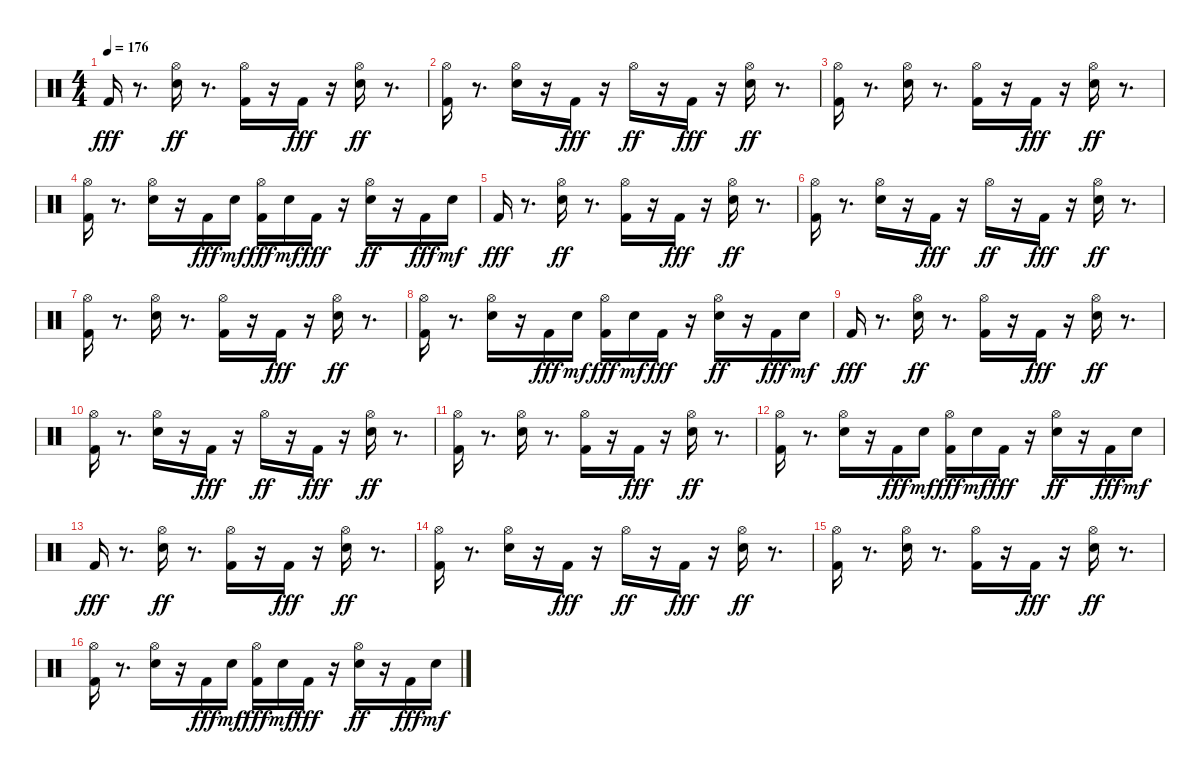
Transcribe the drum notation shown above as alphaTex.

\track "" {instrument percussion}
\staff {score}
\articulation defaults
\ts (4 4)
\tempo 176
\clef neutral
\ks c "Kick (hit) 2".16{dy fff}
r.8{d} ("Electric Snare (hit)" "Hi-Hat (open)").16{dy ff} r.8{d} ("Kick (hit) 2" "Hi-Hat (open)").16 r.16 "Kick (hit) 2".16{dy fff} r.16 ("Electric Snare (hit)" "Hi-Hat (open)").16{dy ff} r.8{d} |
("Kick (hit) 2" "Hi-Hat (open)").16 r.8{d} ("Electric Snare (hit)" "Hi-Hat (open)").16 r.16 "Kick (hit) 2".16{dy fff} r.16 "Hi-Hat (open)".16{dy ff} r.16 "Kick (hit) 2".16{dy fff} r.16 ("Electric Snare (hit)" "Hi-Hat (open)").16{dy ff} r.8{d} |
("Kick (hit) 2" "Hi-Hat (open)").16 r.8{d} ("Electric Snare (hit)" "Hi-Hat (open)").16 r.8{d} ("Kick (hit) 2" "Hi-Hat (open)").16 r.16 "Kick (hit) 2".16{dy fff} r.16 ("Electric Snare (hit)" "Hi-Hat (open)").16{dy ff} r.8{d} |
("Kick (hit) 2" "Hi-Hat (open)").16 r.8{d} ("Electric Snare (hit)" "Hi-Hat (open)").16 r.16 "Kick (hit) 2".16{dy fff} "Electric Snare (hit)".16{dy mf} ("Hi-Hat (open)" "Kick (hit) 2").16{dy fff} "Electric Snare (hit)".16{dy mf} "Kick (hit) 2".16{dy fff} r.16 ("Electric Snare (hit)" "Hi-Hat (open)").16{dy ff} r.16 "Kick (hit) 2".16{dy fff} "Electric Snare (hit)".16{dy mf} |
"Kick (hit) 2".16{dy fff} r.8{d} ("Electric Snare (hit)" "Hi-Hat (open)").16{dy ff} r.8{d} ("Kick (hit) 2" "Hi-Hat (open)").16 r.16 "Kick (hit) 2".16{dy fff} r.16 ("Electric Snare (hit)" "Hi-Hat (open)").16{dy ff} r.8{d} |
("Kick (hit) 2" "Hi-Hat (open)").16 r.8{d} ("Electric Snare (hit)" "Hi-Hat (open)").16 r.16 "Kick (hit) 2".16{dy fff} r.16 "Hi-Hat (open)".16{dy ff} r.16 "Kick (hit) 2".16{dy fff} r.16 ("Electric Snare (hit)" "Hi-Hat (open)").16{dy ff} r.8{d} |
("Kick (hit) 2" "Hi-Hat (open)").16 r.8{d} ("Electric Snare (hit)" "Hi-Hat (open)").16 r.8{d} ("Kick (hit) 2" "Hi-Hat (open)").16 r.16 "Kick (hit) 2".16{dy fff} r.16 ("Electric Snare (hit)" "Hi-Hat (open)").16{dy ff} r.8{d} |
("Kick (hit) 2" "Hi-Hat (open)").16 r.8{d} ("Electric Snare (hit)" "Hi-Hat (open)").16 r.16 "Kick (hit) 2".16{dy fff} "Electric Snare (hit)".16{dy mf} ("Hi-Hat (open)" "Kick (hit) 2").16{dy fff} "Electric Snare (hit)".16{dy mf} "Kick (hit) 2".16{dy fff} r.16 ("Electric Snare (hit)" "Hi-Hat (open)").16{dy ff} r.16 "Kick (hit) 2".16{dy fff} "Electric Snare (hit)".16{dy mf} |
"Kick (hit) 2".16{dy fff} r.8{d} ("Electric Snare (hit)" "Hi-Hat (open)").16{dy ff} r.8{d} ("Kick (hit) 2" "Hi-Hat (open)").16 r.16 "Kick (hit) 2".16{dy fff} r.16 ("Electric Snare (hit)" "Hi-Hat (open)").16{dy ff} r.8{d} |
("Kick (hit) 2" "Hi-Hat (open)").16 r.8{d} ("Electric Snare (hit)" "Hi-Hat (open)").16 r.16 "Kick (hit) 2".16{dy fff} r.16 "Hi-Hat (open)".16{dy ff} r.16 "Kick (hit) 2".16{dy fff} r.16 ("Electric Snare (hit)" "Hi-Hat (open)").16{dy ff} r.8{d} |
("Kick (hit) 2" "Hi-Hat (open)").16 r.8{d} ("Electric Snare (hit)" "Hi-Hat (open)").16 r.8{d} ("Kick (hit) 2" "Hi-Hat (open)").16 r.16 "Kick (hit) 2".16{dy fff} r.16 ("Electric Snare (hit)" "Hi-Hat (open)").16{dy ff} r.8{d} |
("Kick (hit) 2" "Hi-Hat (open)").16 r.8{d} ("Electric Snare (hit)" "Hi-Hat (open)").16 r.16 "Kick (hit) 2".16{dy fff} "Electric Snare (hit)".16{dy mf} ("Hi-Hat (open)" "Kick (hit) 2").16{dy fff} "Electric Snare (hit)".16{dy mf} "Kick (hit) 2".16{dy fff} r.16 ("Electric Snare (hit)" "Hi-Hat (open)").16{dy ff} r.16 "Kick (hit) 2".16{dy fff} "Electric Snare (hit)".16{dy mf} |
"Kick (hit) 2".16{dy fff} r.8{d} ("Electric Snare (hit)" "Hi-Hat (open)").16{dy ff} r.8{d} ("Kick (hit) 2" "Hi-Hat (open)").16 r.16 "Kick (hit) 2".16{dy fff} r.16 ("Electric Snare (hit)" "Hi-Hat (open)").16{dy ff} r.8{d} |
("Kick (hit) 2" "Hi-Hat (open)").16 r.8{d} ("Electric Snare (hit)" "Hi-Hat (open)").16 r.16 "Kick (hit) 2".16{dy fff} r.16 "Hi-Hat (open)".16{dy ff} r.16 "Kick (hit) 2".16{dy fff} r.16 ("Electric Snare (hit)" "Hi-Hat (open)").16{dy ff} r.8{d} |
("Kick (hit) 2" "Hi-Hat (open)").16 r.8{d} ("Electric Snare (hit)" "Hi-Hat (open)").16 r.8{d} ("Kick (hit) 2" "Hi-Hat (open)").16 r.16 "Kick (hit) 2".16{dy fff} r.16 ("Electric Snare (hit)" "Hi-Hat (open)").16{dy ff} r.8{d} |
("Kick (hit) 2" "Hi-Hat (open)").16 r.8{d} ("Electric Snare (hit)" "Hi-Hat (open)").16 r.16 "Kick (hit) 2".16{dy fff} "Electric Snare (hit)".16{dy mf} ("Hi-Hat (open)" "Kick (hit) 2").16{dy fff} "Electric Snare (hit)".16{dy mf} "Kick (hit) 2".16{dy fff} r.16 ("Electric Snare (hit)" "Hi-Hat (open)").16{dy ff} r.16 "Kick (hit) 2".16{dy fff} "Electric Snare (hit)".16{dy mf}
